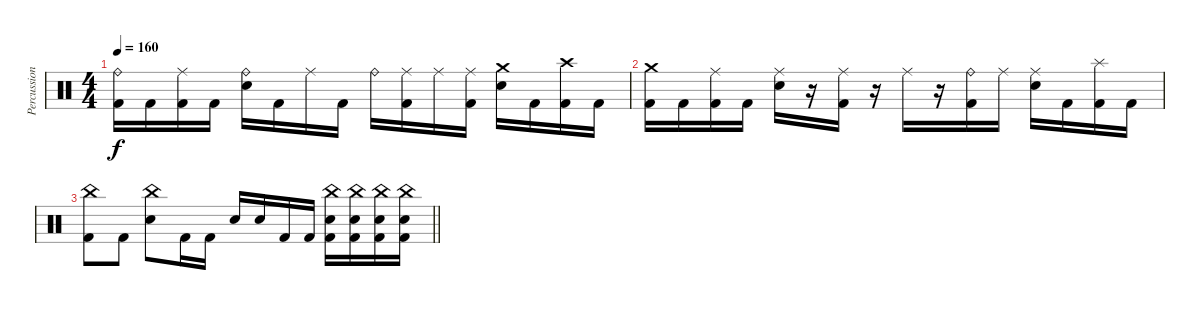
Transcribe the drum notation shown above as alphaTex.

\track ("Percussion" "Percussion") {instrument percussion}
\staff {score}
\articulation defaults
\ts (4 4)
\tempo 160
\clef neutral
\ks c
("Ride (bell)" "Kick (hit) 2").16{dy f} "Kick (hit) 2".16 ("Ride (middle)" "Kick (hit) 2").16 "Kick (hit) 2".16 ("Ride (bell)" "Snare (hit) 2").16 "Kick (hit) 2".16 "Ride (middle)".16 "Kick (hit) 2".16 "Ride (bell)".16 ("Ride (middle)" "Kick (hit) 2").16 "Ride (middle)".16 ("Ride (middle)" "Kick (hit) 2").16 ("Crash medium (hit)" "Snare (hit) 2").16 "Kick (hit) 2".16 ("Crash high (hit)" "Kick (hit) 2").16 "Kick (hit) 2".16 |
("Crash medium (hit)" "Kick (hit) 2").16 "Kick (hit) 2".16 ("Ride (middle)" "Kick (hit) 2").16 "Kick (hit) 2".16 ("Ride (middle)" "Snare (hit) 2").16 r.16 ("Ride (middle)" "Kick (hit) 2").16 r.16 "Ride (middle)".16 r.16 ("Ride (bell)" "Kick (hit) 2").16 "Ride (middle)".16 ("Ride (middle)" "Snare (hit) 2").16 "Kick (hit) 2".16 ("Splash (hit)" "Kick (hit) 2").16 "Kick (hit) 2".16 |
\barLineRight lightlight
("China (hit)" "Kick (hit) 2").8 "Kick (hit) 2".8 ("China (hit)" "Snare (hit) 2").8 "Kick (hit) 2".16 "Kick (hit) 2".16 "Snare (hit) 2".16 "Snare (hit) 2".16 "Kick (hit) 2".16 "Kick (hit) 2".16 ("China (hit)" "Snare (hit) 2" "Kick (hit) 2").16 ("China (hit)" "Snare (hit) 2" "Kick (hit) 2").16 ("China (hit)" "Snare (hit) 2" "Kick (hit) 2").16 ("China (hit)" "Snare (hit) 2" "Kick (hit) 2").16
